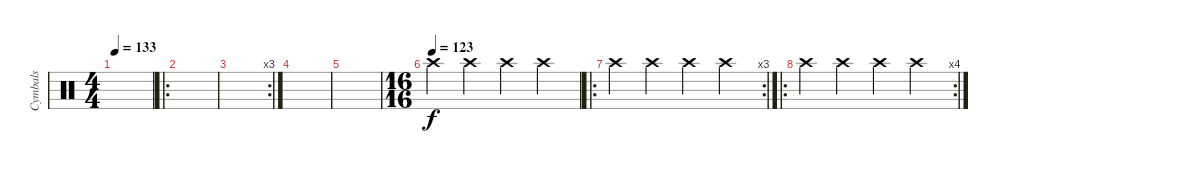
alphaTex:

\track ("Cymbals" "Cymbals") {instrument percussion}
\staff {score}
\articulation defaults
\ts (4 4)
\tempo 133
\clef neutral
\ks c
|
\ro
|
\rc 3
|
|
|
\ts (16 16)
\tempo (123)
"Crash high (hit)".4 "Crash high (hit)".4 "Crash high (hit)".4 "Crash high (hit)".4 |
\ro
\rc 3 "Crash high (hit)".4 "Crash high (hit)".4 "Crash high (hit)".4 "Crash high (hit)".4
|
\ro
\rc 4 "Crash high (hit)".4 "Crash high (hit)".4 "Crash high (hit)".4 "Crash high (hit)".4
